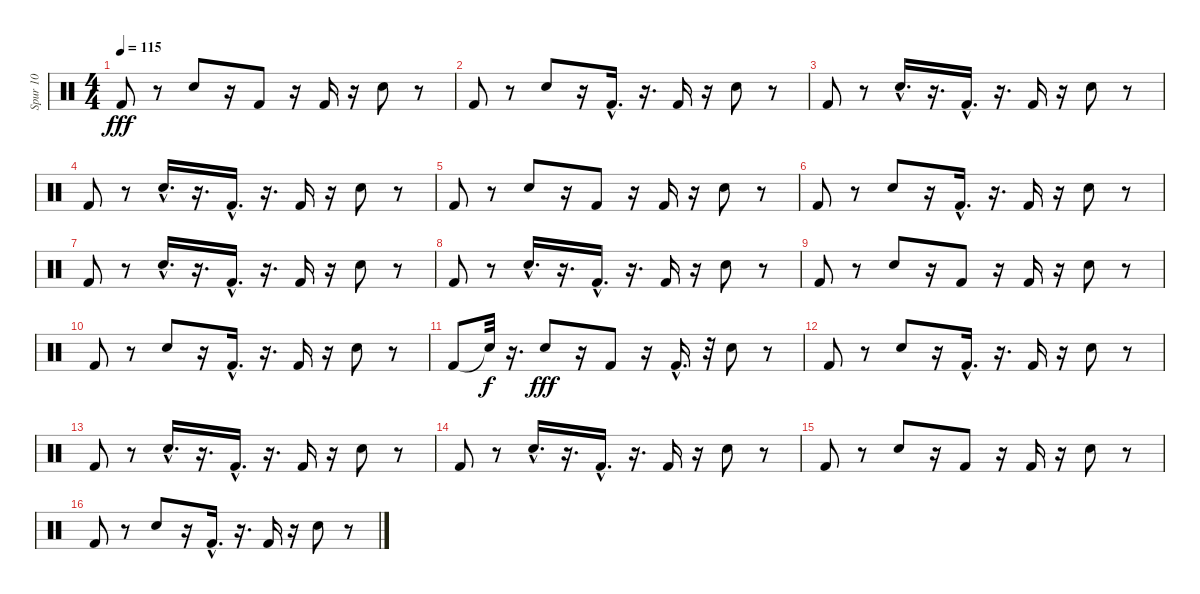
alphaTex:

\track ("Spur 10" "Spur 10") {instrument percussion}
\staff {score}
\articulation defaults
\ts (4 4)
\tempo 115
\clef neutral
\ks c "Kick (hit) 2".8{dy fff}
r.8 "Snare (hit) 2".8 r.16 "Kick (hit) 2".8 r.16 "Kick (hit) 2".16 r.16 "Snare (hit) 2".8 r.8 |
"Kick (hit) 2".8 r.8 "Snare (hit) 2".8 r.16 "Kick (hit) 2"{hac}.16{d} r.16{d} "Kick (hit) 2".16 r.16 "Snare (hit) 2".8 r.8 |
"Kick (hit) 2".8 r.8 "Snare (hit) 2"{hac}.16{d} r.16{d} "Kick (hit) 2"{hac}.16{d} r.16{d} "Kick (hit) 2".16 r.16 "Snare (hit) 2".8 r.8 |
"Kick (hit) 2".8 r.8 "Snare (hit) 2"{hac}.16{d} r.16{d} "Kick (hit) 2"{hac}.16{d} r.16{d} "Kick (hit) 2".16 r.16 "Snare (hit) 2".8 r.8 |
"Kick (hit) 2".8 r.8 "Snare (hit) 2".8 r.16 "Kick (hit) 2".8 r.16 "Kick (hit) 2".16 r.16 "Snare (hit) 2".8 r.8 |
"Kick (hit) 2".8 r.8 "Snare (hit) 2".8 r.16 "Kick (hit) 2"{hac}.16{d} r.16{d} "Kick (hit) 2".16 r.16 "Snare (hit) 2".8 r.8 |
"Kick (hit) 2".8 r.8 "Snare (hit) 2"{hac}.16{d} r.16{d} "Kick (hit) 2"{hac}.16{d} r.16{d} "Kick (hit) 2".16 r.16 "Snare (hit) 2".8 r.8 |
"Kick (hit) 2".8 r.8 "Snare (hit) 2"{hac}.16{d} r.16{d} "Kick (hit) 2"{hac}.16{d} r.16{d} "Kick (hit) 2".16 r.16 "Snare (hit) 2".8 r.8 |
"Kick (hit) 2".8 r.8 "Snare (hit) 2".8 r.16 "Kick (hit) 2".8 r.16 "Kick (hit) 2".16 r.16 "Snare (hit) 2".8 r.8 |
"Kick (hit) 2".8 r.8 "Snare (hit) 2".8 r.16 "Kick (hit) 2"{hac}.16{d} r.16{d} "Kick (hit) 2".16 r.16 "Snare (hit) 2".8 r.8 |
"Kick (hit) 2".8 "Snare (hit)"{t}.32{dy f} r.16{d} "Snare (hit) 2".8{dy fff} r.16 "Kick (hit) 2".8 r.16 "Kick (hit) 2"{hac}.16{d} r.32 "Snare (hit) 2".8 r.8 |
"Kick (hit) 2".8 r.8 "Snare (hit) 2".8 r.16 "Kick (hit) 2"{hac}.16{d} r.16{d} "Kick (hit) 2".16 r.16 "Snare (hit) 2".8 r.8 |
"Kick (hit) 2".8 r.8 "Snare (hit) 2"{hac}.16{d} r.16{d} "Kick (hit) 2"{hac}.16{d} r.16{d} "Kick (hit) 2".16 r.16 "Snare (hit) 2".8 r.8 |
"Kick (hit) 2".8 r.8 "Snare (hit) 2"{hac}.16{d} r.16{d} "Kick (hit) 2"{hac}.16{d} r.16{d} "Kick (hit) 2".16 r.16 "Snare (hit) 2".8 r.8 |
"Kick (hit) 2".8 r.8 "Snare (hit) 2".8 r.16 "Kick (hit) 2".8 r.16 "Kick (hit) 2".16 r.16 "Snare (hit) 2".8 r.8 |
"Kick (hit) 2".8 r.8 "Snare (hit) 2".8 r.16 "Kick (hit) 2"{hac}.16{d} r.16{d} "Kick (hit) 2".16 r.16 "Snare (hit) 2".8 r.8
